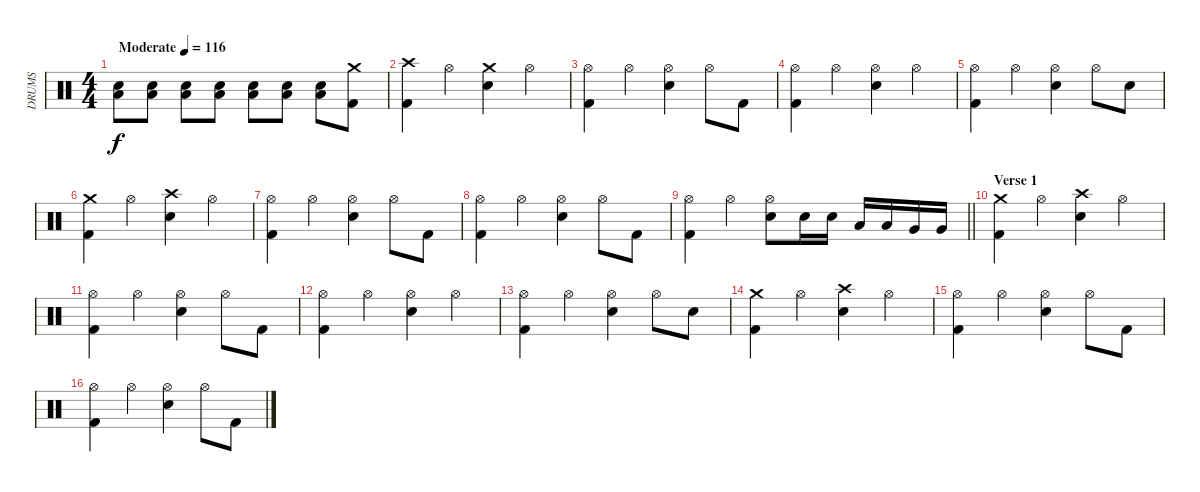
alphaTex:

\track ("DRUMS" "DRUMS") {instrument percussion}
\staff {score}
\articulation defaults
\ts (4 4)
\tempo (116 "Moderate")
\clef neutral
\ks c
("Low Floor Tom (hit)" "Snare (hit) 2").8{dy f} ("Low Floor Tom (hit)" "Snare (hit) 2").8 ("Low Floor Tom (hit)" "Snare (hit) 2").8 ("Low Floor Tom (hit)" "Snare (hit) 2").8 ("Low Floor Tom (hit)" "Snare (hit) 2").8 ("Low Floor Tom (hit)" "Snare (hit) 2").8 ("Low Floor Tom (hit)" "Snare (hit) 2").8 ("Crash medium (hit)" "Kick (hit) 2").8 |
("Crash high (hit)" "Kick (hit) 2").4 "Hi-Hat (open)".4 ("Crash medium (hit)" "Snare (hit) 2").4 "Hi-Hat (open)".4 |
("Hi-Hat (open)" "Kick (hit) 2").4 "Hi-Hat (open)".4 ("Hi-Hat (open)" "Snare (hit) 2").4 "Hi-Hat (open)".8 "Kick (hit) 2".8 |
("Hi-Hat (open)" "Kick (hit) 2").4 "Hi-Hat (open)".4 ("Hi-Hat (open)" "Snare (hit) 2").4 "Hi-Hat (open)".4 |
("Hi-Hat (open)" "Kick (hit) 2").4 "Hi-Hat (open)".4 ("Hi-Hat (open)" "Snare (hit) 2").4 "Hi-Hat (open)".8 "Snare (hit) 2".8 |
("Crash medium (hit)" "Kick (hit) 2").4 "Hi-Hat (open)".4 ("Crash high (hit)" "Snare (hit) 2").4 "Hi-Hat (open)".4 |
("Hi-Hat (open)" "Kick (hit) 2").4 "Hi-Hat (open)".4 ("Hi-Hat (open)" "Snare (hit) 2").4 "Hi-Hat (open)".8 "Kick (hit) 2".8 |
("Hi-Hat (open)" "Kick (hit) 2").4 "Hi-Hat (open)".4 ("Hi-Hat (open)" "Snare (hit) 2").4 "Hi-Hat (open)".8 "Kick (hit) 2".8 |
\barLineRight lightlight
("Hi-Hat (open)" "Kick (hit) 2").4 "Hi-Hat (open)".4 ("Hi-Hat (open)" "Snare (hit) 2").8 "Snare (hit) 2".16 "Snare (hit) 2".16 "Low Tom (hit)".16 "Low Tom (hit)".16 "Very Low Tom (hit)".16 "Very Low Tom (hit)".16 |
\section ("" "Verse 1")
("Crash medium (hit)" "Kick (hit) 2").4 "Hi-Hat (open)".4 ("Crash high (hit)" "Snare (hit) 2").4 "Hi-Hat (open)".4 |
("Hi-Hat (open)" "Kick (hit) 2").4 "Hi-Hat (open)".4 ("Hi-Hat (open)" "Snare (hit) 2").4 "Hi-Hat (open)".8 "Kick (hit) 2".8 |
("Hi-Hat (open)" "Kick (hit) 2").4 "Hi-Hat (open)".4 ("Hi-Hat (open)" "Snare (hit) 2").4 "Hi-Hat (open)".4 |
("Hi-Hat (open)" "Kick (hit) 2").4 "Hi-Hat (open)".4 ("Hi-Hat (open)" "Snare (hit) 2").4 "Hi-Hat (open)".8 "Snare (hit) 2".8 |
("Crash medium (hit)" "Kick (hit) 2").4 "Hi-Hat (open)".4 ("Crash high (hit)" "Snare (hit) 2").4 "Hi-Hat (open)".4 |
("Hi-Hat (open)" "Kick (hit) 2").4 "Hi-Hat (open)".4 ("Hi-Hat (open)" "Snare (hit) 2").4 "Hi-Hat (open)".8 "Kick (hit) 2".8 |
("Hi-Hat (open)" "Kick (hit) 2").4 "Hi-Hat (open)".4 ("Hi-Hat (open)" "Snare (hit) 2").4 "Hi-Hat (open)".8 "Kick (hit) 2".8
